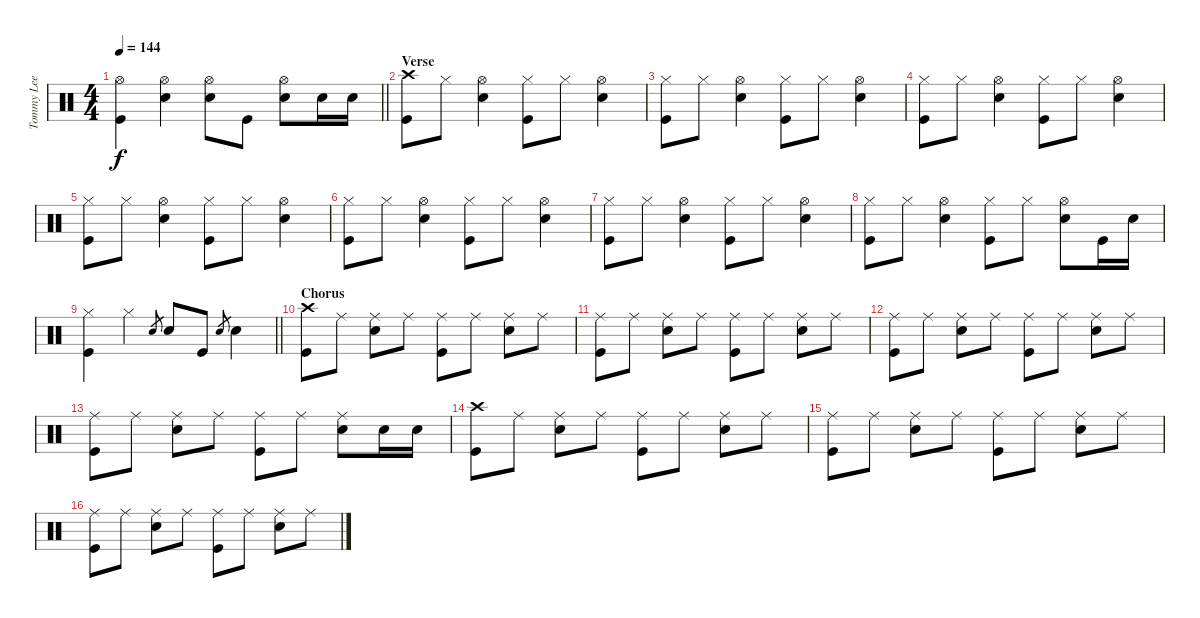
\track ("Tommy Lee" "Tommy Lee") {instrument percussion}
\staff {score}
\articulation defaults
\ts (4 4)
\tempo 144
\clef neutral
\barLineRight lightlight
\ks c
("Hi-Hat (open)" "Kick (hit)").4{dy f} ("Hi-Hat (open)" "Snare (hit) 2").4 ("Hi-Hat (open)" "Snare (hit) 2").8 "Kick (hit)".8 ("Hi-Hat (open)" "Snare (hit) 2").8 "Snare (hit) 2".16 "Snare (hit) 2".16 |
\section ("" "Verse")
("Crash high (hit)" "Kick (hit)").8 "Hi-Hat (closed)".8 ("Hi-Hat (open)" "Snare (hit) 2").4 ("Hi-Hat (closed)" "Kick (hit)").8 "Hi-Hat (closed)".8 ("Hi-Hat (open)" "Snare (hit) 2").4 |
("Hi-Hat (closed)" "Kick (hit)").8 "Hi-Hat (closed)".8 ("Hi-Hat (open)" "Snare (hit) 2").4 ("Hi-Hat (closed)" "Kick (hit)").8 "Hi-Hat (closed)".8 ("Hi-Hat (open)" "Snare (hit) 2").4 |
("Hi-Hat (closed)" "Kick (hit)").8 "Hi-Hat (closed)".8 ("Hi-Hat (open)" "Snare (hit) 2").4 ("Hi-Hat (closed)" "Kick (hit)").8 "Hi-Hat (closed)".8 ("Hi-Hat (open)" "Snare (hit) 2").4 |
("Hi-Hat (closed)" "Kick (hit)").8 "Hi-Hat (closed)".8 ("Hi-Hat (open)" "Snare (hit) 2").4 ("Hi-Hat (closed)" "Kick (hit)").8 "Hi-Hat (closed)".8 ("Hi-Hat (open)" "Snare (hit) 2").4 |
("Hi-Hat (closed)" "Kick (hit)").8 "Hi-Hat (closed)".8 ("Hi-Hat (open)" "Snare (hit) 2").4 ("Hi-Hat (closed)" "Kick (hit)").8 "Hi-Hat (closed)".8 ("Hi-Hat (open)" "Snare (hit) 2").4 |
("Hi-Hat (closed)" "Kick (hit)").8 "Hi-Hat (closed)".8 ("Hi-Hat (open)" "Snare (hit) 2").4 ("Hi-Hat (closed)" "Kick (hit)").8 "Hi-Hat (closed)".8 ("Hi-Hat (open)" "Snare (hit) 2").4 |
("Hi-Hat (closed)" "Kick (hit)").8 "Hi-Hat (closed)".8 ("Hi-Hat (open)" "Snare (hit) 2").4 ("Hi-Hat (closed)" "Kick (hit)").8 "Hi-Hat (closed)".8 ("Hi-Hat (open)" "Snare (hit) 2").8 "Kick (hit)".16 "Snare (hit) 2".16 |
\barLineRight lightlight
("Hi-Hat (closed)" "Kick (hit)").4 "Hi-Hat (closed)".4 "Snare (hit) 2".8{gr} "Snare (hit) 2".8 "Kick (hit)".8 "Snare (hit) 2".8{gr} "Snare (hit) 2".4 |
\section ("" "Chorus")
("Crash high (hit)" "Kick (hit)").8 "Ride (middle)".8 ("Ride (middle)" "Snare (hit) 2").8 "Ride (middle)".8 ("Ride (middle)" "Kick (hit)").8 "Ride (middle)".8 ("Ride (middle)" "Snare (hit) 2").8 "Ride (middle)".8 |
("Ride (middle)" "Kick (hit)").8 "Ride (middle)".8 ("Ride (middle)" "Snare (hit) 2").8 "Ride (middle)".8 ("Ride (middle)" "Kick (hit)").8 "Ride (middle)".8 ("Ride (middle)" "Snare (hit) 2").8 "Ride (middle)".8 |
("Ride (middle)" "Kick (hit)").8 "Ride (middle)".8 ("Ride (middle)" "Snare (hit) 2").8 "Ride (middle)".8 ("Ride (middle)" "Kick (hit)").8 "Ride (middle)".8 ("Ride (middle)" "Snare (hit) 2").8 "Ride (middle)".8 |
("Ride (middle)" "Kick (hit)").8 "Ride (middle)".8 ("Ride (middle)" "Snare (hit) 2").8 "Ride (middle)".8 ("Ride (middle)" "Kick (hit)").8 "Ride (middle)".8 ("Ride (middle)" "Snare (hit) 2").8 "Snare (hit) 2".16 "Snare (hit) 2".16 |
("Crash high (hit)" "Kick (hit)").8 "Ride (middle)".8 ("Ride (middle)" "Snare (hit) 2").8 "Ride (middle)".8 ("Ride (middle)" "Kick (hit)").8 "Ride (middle)".8 ("Ride (middle)" "Snare (hit) 2").8 "Ride (middle)".8 |
("Ride (middle)" "Kick (hit)").8 "Ride (middle)".8 ("Ride (middle)" "Snare (hit) 2").8 "Ride (middle)".8 ("Ride (middle)" "Kick (hit)").8 "Ride (middle)".8 ("Ride (middle)" "Snare (hit) 2").8 "Ride (middle)".8 |
("Ride (middle)" "Kick (hit)").8 "Ride (middle)".8 ("Ride (middle)" "Snare (hit) 2").8 "Ride (middle)".8 ("Ride (middle)" "Kick (hit)").8 "Ride (middle)".8 ("Ride (middle)" "Snare (hit) 2").8 "Ride (middle)".8
